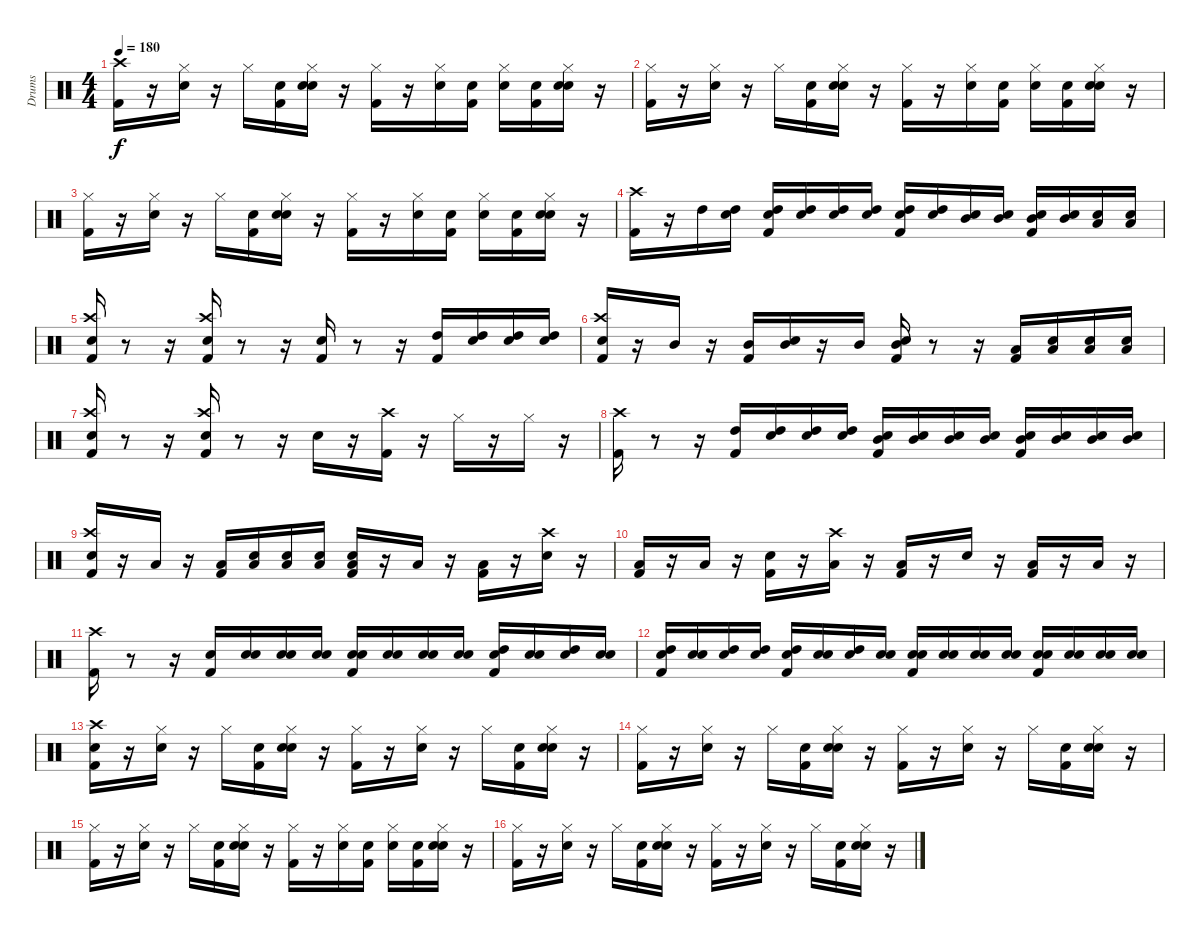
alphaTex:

\track ("Drums" "Drums") {instrument percussion}
\staff {score}
\articulation defaults
\ts (4 4)
\tempo 180
\clef neutral
\ks c
("Kick (hit) 2" "Crash high (hit)").16{dy f} r.16 ("Snare (hit) 2" "Hi-Hat (closed)").16 r.16 "Hi-Hat (closed)".16 ("Snare (hit)" "Kick (hit) 2").16 ("Snare (hit)" "Snare (hit) 2" "Hi-Hat (closed)").16 r.16 ("Kick (hit) 2" "Hi-Hat (closed)").16 r.16 ("Snare (hit) 2" "Hi-Hat (closed)").16 ("Snare (hit)" "Kick (hit) 2").16 ("Snare (hit)" "Hi-Hat (closed)").16 ("Snare (hit)" "Kick (hit) 2").16 ("Snare (hit)" "Snare (hit) 2" "Hi-Hat (closed)").16 r.16 |
("Kick (hit) 2" "Hi-Hat (closed)").16 r.16 ("Snare (hit) 2" "Hi-Hat (closed)").16 r.16 "Hi-Hat (closed)".16 ("Snare (hit)" "Kick (hit) 2").16 ("Snare (hit)" "Snare (hit) 2" "Hi-Hat (closed)").16 r.16 ("Kick (hit) 2" "Hi-Hat (closed)").16 r.16 ("Snare (hit) 2" "Hi-Hat (closed)").16 ("Snare (hit)" "Kick (hit) 2").16 ("Snare (hit)" "Hi-Hat (closed)").16 ("Snare (hit)" "Kick (hit) 2").16 ("Snare (hit)" "Snare (hit) 2" "Hi-Hat (closed)").16 r.16 |
("Kick (hit) 2" "Hi-Hat (closed)").16 r.16 ("Snare (hit) 2" "Hi-Hat (closed)").16 r.16 "Hi-Hat (closed)".16 ("Snare (hit)" "Kick (hit) 2").16 ("Snare (hit)" "Snare (hit) 2" "Hi-Hat (closed)").16 r.16 ("Kick (hit) 2" "Hi-Hat (closed)").16 r.16 ("Snare (hit) 2" "Hi-Hat (closed)").16 ("Snare (hit)" "Kick (hit) 2").16 ("Snare (hit)" "Hi-Hat (closed)").16 ("Snare (hit)" "Kick (hit) 2").16 ("Snare (hit)" "Snare (hit) 2" "Hi-Hat (closed)").16 r.16 |
("Kick (hit) 2" "Crash high (hit)").16 r.16 "High Tom (hit)".16 ("Snare (hit)" "High Tom (hit)").16 ("Snare (hit)" "High Tom (hit)" "Kick (hit) 2").16 ("Snare (hit)" "High Tom (hit)").16 ("Snare (hit)" "High Tom (hit)").16 ("Snare (hit)" "High Tom (hit)").16 ("Snare (hit)" "High Tom (hit)" "Kick (hit) 2").16 ("Snare (hit)" "High Tom (hit)").16 ("Snare (hit)" "Mid Tom (hit)").16 ("Snare (hit)" "Mid Tom (hit)").16 ("Snare (hit)" "Mid Tom (hit)" "Kick (hit) 2").16 ("Snare (hit)" "Mid Tom (hit)").16 ("Snare (hit)" "Low Tom (hit)").16 ("Snare (hit)" "Low Tom (hit)").16 |
("Snare (hit)" "Crash high (hit)" "Kick (hit) 2").16 r.8 r.16 ("Snare (hit) 2" "Kick (hit) 2" "Crash high (hit)").16 r.8 r.16 ("Snare (hit) 2" "Kick (hit) 2").16 r.8 r.16 ("High Tom (hit)" "Kick (hit) 2").16 ("Snare (hit)" "High Tom (hit)").16 ("Snare (hit)" "High Tom (hit)").16 ("Snare (hit)" "High Tom (hit)").16 |
("Snare (hit)" "Kick (hit) 2" "Crash high (hit)").16 r.16 "Mid Tom (hit)".16 r.16 ("Mid Tom (hit)" "Kick (hit) 2").16 ("Snare (hit)" "Mid Tom (hit)").16 r.16 "Mid Tom (hit)".16 ("Snare (hit)" "Mid Tom (hit)" "Kick (hit) 2").16 r.8 r.16 ("Low Tom (hit)" "Kick (hit) 2").16 ("Snare (hit)" "Low Tom (hit)").16 ("Snare (hit)" "Low Tom (hit)").16 ("Snare (hit)" "Low Tom (hit)").16 |
("Snare (hit)" "Crash high (hit)" "Kick (hit) 2").16 r.8 r.16 ("Kick (hit) 2" "Snare (hit) 2" "Crash high (hit)").16 r.8 r.16 "Snare (hit) 2".16 r.16 ("Kick (hit) 2" "Crash high (hit)").16 r.16 "Hi-Hat (closed)".16 r.16 "Hi-Hat (closed)".16 r.16 |
("Kick (hit) 2" "Crash high (hit)").16 r.8 r.16 ("High Tom (hit)" "Kick (hit) 2").16 ("Snare (hit)" "High Tom (hit)").16 ("Snare (hit)" "High Tom (hit)").16 ("Snare (hit)" "High Tom (hit)").16 ("Snare (hit)" "Mid Tom (hit)" "Kick (hit) 2").16 ("Snare (hit)" "Mid Tom (hit)").16 ("Snare (hit)" "Mid Tom (hit)").16 ("Snare (hit)" "Mid Tom (hit)").16 ("Snare (hit)" "Mid Tom (hit)" "Kick (hit) 2").16 ("Snare (hit)" "Mid Tom (hit)").16 ("Snare (hit)" "Mid Tom (hit)").16 ("Snare (hit)" "Mid Tom (hit)").16 |
("Snare (hit)" "Kick (hit) 2" "Crash high (hit)").16 r.16 "Low Tom (hit)".16 r.16 ("Low Tom (hit)" "Kick (hit) 2").16 ("Snare (hit)" "Low Tom (hit)").16 ("Snare (hit)" "Low Tom (hit)").16 ("Snare (hit)" "Low Tom (hit)").16 ("Snare (hit)" "Low Tom (hit)" "Kick (hit) 2").16 r.16 "Low Tom (hit)".16 r.16 ("Low Tom (hit)" "Kick (hit) 2").16 r.16 ("Crash high (hit)" "Snare (hit) 2").16 r.16 |
("Low Tom (hit)" "Kick (hit) 2").16 r.16 "Low Tom (hit)".16 r.16 ("Snare (hit) 2" "Kick (hit) 2").16 r.16 ("Crash high (hit)" "Low Tom (hit)").16 r.16 ("Low Tom (hit)" "Kick (hit) 2").16 r.16 "Snare (hit) 2".16 r.16 ("Low Tom (hit)" "Kick (hit) 2").16 r.16 "Low Tom (hit)".16 r.16 |
("Crash high (hit)" "Kick (hit) 2").16 r.8 r.16 ("Snare (hit) 2" "Kick (hit) 2").16 ("Snare (hit)" "Snare (hit) 2").16 ("Snare (hit)" "Snare (hit) 2").16 ("Snare (hit)" "Snare (hit) 2").16 ("Snare (hit)" "Snare (hit) 2" "Kick (hit) 2").16 ("Snare (hit)" "Snare (hit) 2").16 ("Snare (hit)" "Snare (hit) 2").16 ("Snare (hit)" "Snare (hit) 2").16 ("Snare (hit)" "High Tom (hit)" "Kick (hit) 2").16 ("Snare (hit)" "Snare (hit) 2").16 ("Snare (hit)" "High Tom (hit)").16 ("Snare (hit)" "Snare (hit) 2").16 |
("Snare (hit)" "High Tom (hit)" "Kick (hit) 2").16 ("Snare (hit)" "Snare (hit) 2").16 ("Snare (hit)" "High Tom (hit)").16 ("Snare (hit)" "High Tom (hit)").16 ("Snare (hit)" "High Tom (hit)" "Kick (hit) 2").16 ("Snare (hit)" "Snare (hit) 2").16 ("Snare (hit)" "High Tom (hit)").16 ("Snare (hit)" "Snare (hit) 2").16 ("Snare (hit)" "Snare (hit) 2" "Kick (hit) 2").16 ("Snare (hit)" "Snare (hit) 2").16 ("Snare (hit)" "Snare (hit) 2").16 ("Snare (hit)" "Snare (hit) 2").16 ("Snare (hit)" "Snare (hit) 2" "Kick (hit) 2").16 ("Snare (hit)" "Snare (hit) 2").16 ("Snare (hit)" "Snare (hit) 2").16 ("Snare (hit)" "Snare (hit) 2").16 |
("Snare (hit)" "Kick (hit) 2" "Crash high (hit)").16 r.16 ("Snare (hit) 2" "Hi-Hat (closed)").16 r.16 "Hi-Hat (closed)".16 ("Snare (hit)" "Kick (hit) 2").16 ("Snare (hit)" "Snare (hit) 2" "Hi-Hat (closed)").16 r.16 ("Kick (hit) 2" "Hi-Hat (closed)").16 r.16 ("Snare (hit) 2" "Hi-Hat (closed)").16 r.16 "Hi-Hat (closed)".16 ("Snare (hit)" "Kick (hit) 2").16 ("Snare (hit)" "Snare (hit) 2" "Hi-Hat (closed)").16 r.16 |
("Kick (hit) 2" "Hi-Hat (closed)").16 r.16 ("Snare (hit) 2" "Hi-Hat (closed)").16 r.16 "Hi-Hat (closed)".16 ("Snare (hit)" "Kick (hit) 2").16 ("Snare (hit)" "Snare (hit) 2" "Hi-Hat (closed)").16 r.16 ("Kick (hit) 2" "Hi-Hat (closed)").16 r.16 ("Snare (hit) 2" "Hi-Hat (closed)").16 r.16 "Hi-Hat (closed)".16 ("Snare (hit)" "Kick (hit) 2").16 ("Snare (hit)" "Snare (hit) 2" "Hi-Hat (closed)").16 r.16 |
("Kick (hit) 2" "Hi-Hat (closed)").16 r.16 ("Hi-Hat (closed)" "Snare (hit) 2").16 r.16 "Hi-Hat (closed)".16 ("Snare (hit)" "Kick (hit) 2").16 ("Snare (hit)" "Snare (hit) 2" "Hi-Hat (closed)").16 r.16 ("Kick (hit) 2" "Hi-Hat (closed)").16 r.16 ("Snare (hit) 2" "Hi-Hat (closed)").16 ("Snare (hit)" "Kick (hit) 2").16 ("Snare (hit)" "Hi-Hat (closed)").16 ("Snare (hit)" "Kick (hit) 2").16 ("Snare (hit)" "Snare (hit) 2" "Hi-Hat (closed)").16 r.16 |
("Kick (hit) 2" "Hi-Hat (closed)").16 r.16 ("Snare (hit) 2" "Hi-Hat (closed)").16 r.16 "Hi-Hat (closed)".16 ("Snare (hit)" "Kick (hit) 2").16 ("Snare (hit)" "Snare (hit) 2" "Hi-Hat (closed)").16 r.16 ("Kick (hit) 2" "Hi-Hat (closed)").16 r.16 ("Snare (hit) 2" "Hi-Hat (closed)").16 r.16 "Hi-Hat (closed)".16 ("Snare (hit)" "Kick (hit) 2").16 ("Snare (hit)" "Snare (hit) 2" "Hi-Hat (closed)").16 r.16
